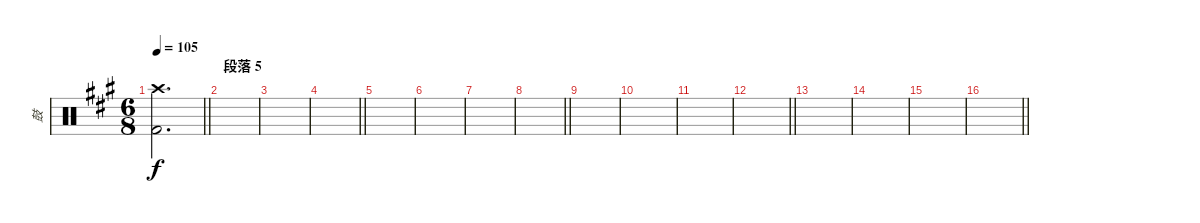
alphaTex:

\track ("鼓" "鼓") {instrument percussion}
\staff {score}
\articulation defaults
\ts (6 8)
\tempo 105
\clef neutral
\barLineRight lightlight
\ks a
("Crash high (hit)" "Kick (hit) 2").2{d dy f} |
\section ("" "段落 5")
|
|
\barLineRight lightlight
|
|
|
|
\barLineRight lightlight
|
|
|
|
\barLineRight lightlight
|
|
|
|
\barLineRight lightlight
